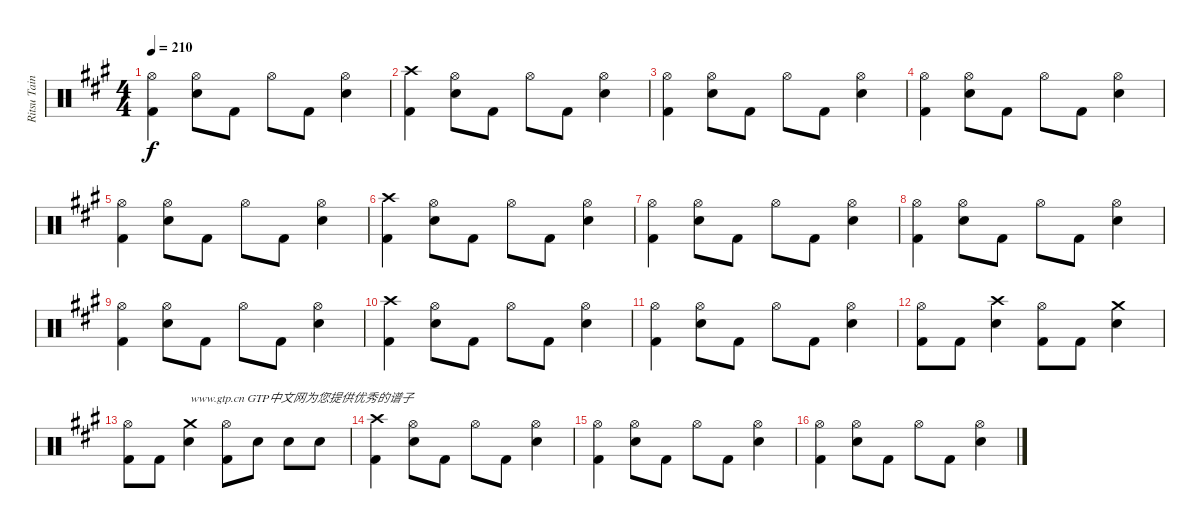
\track ("Ritsu Tainaka" "Ritsu Tain") {instrument percussion}
\staff {score}
\articulation defaults
\ts (4 4)
\tempo 210
\clef neutral
\ks a
("Hi-Hat (open)" "Kick (hit) 2").4{dy f} ("Hi-Hat (open)" "Electric Snare (hit)").8 "Kick (hit) 2".8 "Hi-Hat (open)".8 "Kick (hit) 2".8 ("Hi-Hat (open)" "Electric Snare (hit)").4 |
("Crash high (hit)" "Kick (hit) 2").4 ("Hi-Hat (open)" "Electric Snare (hit)").8 "Kick (hit) 2".8 "Hi-Hat (open)".8 "Kick (hit) 2".8 ("Hi-Hat (open)" "Electric Snare (hit)").4 |
("Hi-Hat (open)" "Kick (hit) 2").4 ("Hi-Hat (open)" "Electric Snare (hit)").8 "Kick (hit) 2".8 "Hi-Hat (open)".8 "Kick (hit) 2".8 ("Hi-Hat (open)" "Electric Snare (hit)").4 |
("Hi-Hat (open)" "Kick (hit) 2").4 ("Hi-Hat (open)" "Electric Snare (hit)").8 "Kick (hit) 2".8 "Hi-Hat (open)".8 "Kick (hit) 2".8 ("Hi-Hat (open)" "Electric Snare (hit)").4 |
("Hi-Hat (open)" "Kick (hit) 2").4 ("Hi-Hat (open)" "Electric Snare (hit)").8 "Kick (hit) 2".8 "Hi-Hat (open)".8 "Kick (hit) 2".8 ("Hi-Hat (open)" "Electric Snare (hit)").4 |
("Crash high (hit)" "Kick (hit) 2").4 ("Hi-Hat (open)" "Electric Snare (hit)").8 "Kick (hit) 2".8 "Hi-Hat (open)".8 "Kick (hit) 2".8 ("Hi-Hat (open)" "Electric Snare (hit)").4 |
("Hi-Hat (open)" "Kick (hit) 2").4 ("Hi-Hat (open)" "Electric Snare (hit)").8 "Kick (hit) 2".8 "Hi-Hat (open)".8 "Kick (hit) 2".8 ("Hi-Hat (open)" "Electric Snare (hit)").4 |
("Hi-Hat (open)" "Kick (hit) 2").4 ("Hi-Hat (open)" "Electric Snare (hit)").8 "Kick (hit) 2".8 "Hi-Hat (open)".8 "Kick (hit) 2".8 ("Hi-Hat (open)" "Electric Snare (hit)").4 |
("Hi-Hat (open)" "Kick (hit) 2").4 ("Hi-Hat (open)" "Electric Snare (hit)").8 "Kick (hit) 2".8 "Hi-Hat (open)".8 "Kick (hit) 2".8 ("Hi-Hat (open)" "Electric Snare (hit)").4 |
("Crash high (hit)" "Kick (hit) 2").4 ("Hi-Hat (open)" "Electric Snare (hit)").8 "Kick (hit) 2".8 "Hi-Hat (open)".8 "Kick (hit) 2".8 ("Hi-Hat (open)" "Electric Snare (hit)").4 |
("Hi-Hat (open)" "Kick (hit) 2").4 ("Hi-Hat (open)" "Electric Snare (hit)").8 "Kick (hit) 2".8 "Hi-Hat (open)".8 "Kick (hit) 2".8 ("Hi-Hat (open)" "Electric Snare (hit)").4 |
("Hi-Hat (open)" "Kick (hit) 2").8 "Kick (hit) 2".8 ("Crash high (hit)" "Electric Snare (hit)").4 ("Hi-Hat (open)" "Kick (hit) 2").8 "Kick (hit) 2".8 ("Crash medium (hit)" "Electric Snare (hit)").4 |
("Hi-Hat (open)" "Kick (hit) 2").8 "Kick (hit) 2".8 ("Crash medium (hit)" "Electric Snare (hit)").4{txt "www.gtp.cn GTP中文网为您提供优秀的谱子"} ("Hi-Hat (open)" "Kick (hit) 2").8 "Electric Snare (hit)".8 "Electric Snare (hit)".8 "Electric Snare (hit)".8 |
("Crash high (hit)" "Kick (hit) 2").4 ("Hi-Hat (open)" "Electric Snare (hit)").8 "Kick (hit) 2".8 "Hi-Hat (open)".8 "Kick (hit) 2".8 ("Hi-Hat (open)" "Electric Snare (hit)").4 |
("Hi-Hat (open)" "Kick (hit) 2").4 ("Hi-Hat (open)" "Electric Snare (hit)").8 "Kick (hit) 2".8 "Hi-Hat (open)".8 "Kick (hit) 2".8 ("Hi-Hat (open)" "Electric Snare (hit)").4 |
("Hi-Hat (open)" "Kick (hit) 2").4 ("Hi-Hat (open)" "Electric Snare (hit)").8 "Kick (hit) 2".8 "Hi-Hat (open)".8 "Kick (hit) 2".8 ("Hi-Hat (open)" "Electric Snare (hit)").4
